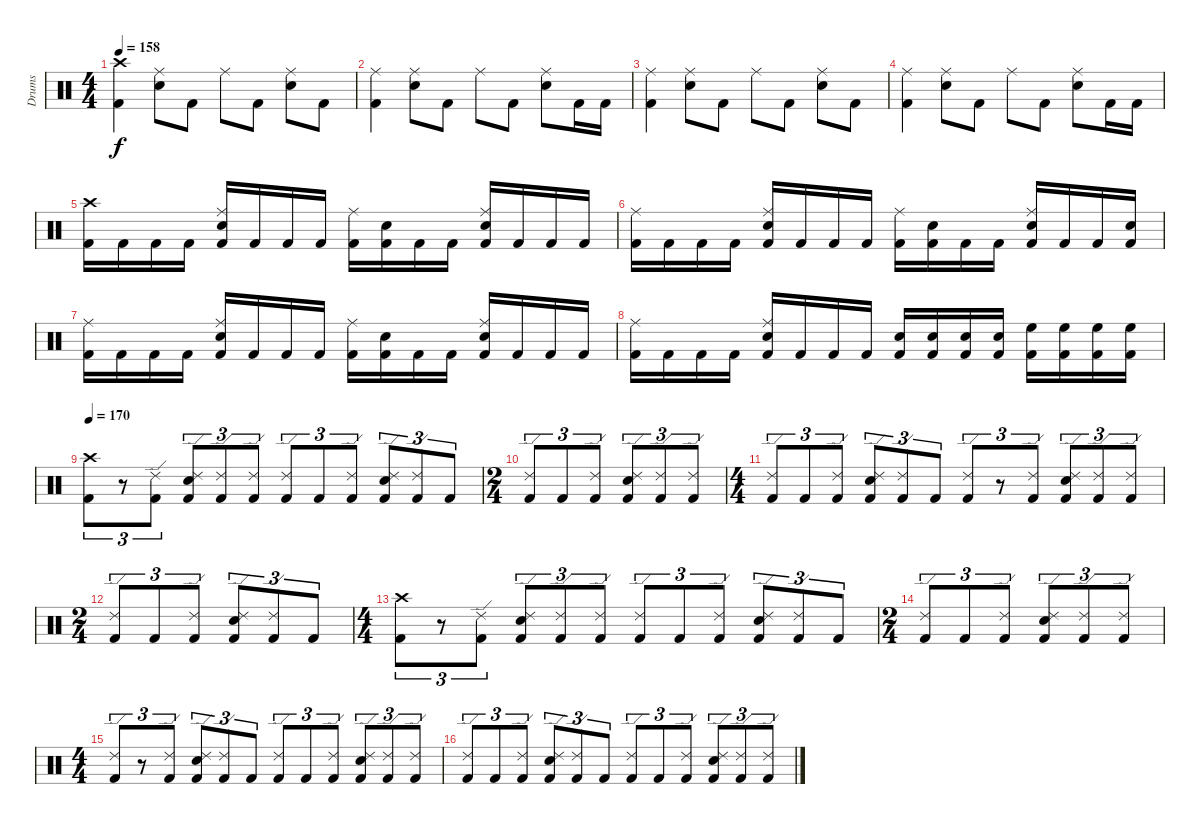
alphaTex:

\track ("Drums" "Drums") {instrument percussion}
\staff {score}
\articulation defaults
\ts (4 4)
\tempo 158
\clef neutral
\ks c
("Crash high (hit)" "Kick (hit) 2").4{dy f} ("Ride (middle)" "Snare (hit) 2").8 "Kick (hit) 2".8 "Ride (middle)".8 "Kick (hit) 2".8 ("Ride (middle)" "Snare (hit) 2").8 "Kick (hit) 2".8 |
("Ride (middle)" "Kick (hit) 2").4 ("Ride (middle)" "Snare (hit) 2").8 "Kick (hit) 2".8 "Ride (middle)".8 "Kick (hit) 2".8 ("Ride (middle)" "Snare (hit) 2").8 "Kick (hit) 2".16 "Kick (hit) 2".16 |
("Ride (middle)" "Kick (hit) 2").4 ("Ride (middle)" "Snare (hit) 2").8 "Kick (hit) 2".8 "Ride (middle)".8 "Kick (hit) 2".8 ("Ride (middle)" "Snare (hit) 2").8 "Kick (hit) 2".8 |
("Ride (middle)" "Kick (hit) 2").4 ("Ride (middle)" "Snare (hit) 2").8 "Kick (hit) 2".8 "Ride (middle)".8 "Kick (hit) 2".8 ("Ride (middle)" "Snare (hit) 2").8 "Kick (hit) 2".16 "Kick (hit) 2".16 |
("Crash high (hit)" "Kick (hit) 2").16 "Kick (hit) 2".16 "Kick (hit) 2".16 "Kick (hit) 2".16 ("Ride (middle)" "Snare (hit) 2" "Kick (hit) 2").16 "Kick (hit) 2".16 "Kick (hit) 2".16 "Kick (hit) 2".16 ("Ride (middle)" "Kick (hit) 2").16 ("Snare (hit) 2" "Kick (hit) 2").16 "Kick (hit) 2".16 "Kick (hit) 2".16 ("Ride (middle)" "Snare (hit) 2" "Kick (hit) 2").16 "Kick (hit) 2".16 "Kick (hit) 2".16 "Kick (hit) 2".16 |
("Ride (middle)" "Kick (hit) 2").16 "Kick (hit) 2".16 "Kick (hit) 2".16 "Kick (hit) 2".16 ("Ride (middle)" "Snare (hit) 2" "Kick (hit) 2").16 "Kick (hit) 2".16 "Kick (hit) 2".16 "Kick (hit) 2".16 ("Ride (middle)" "Kick (hit) 2").16 ("Snare (hit) 2" "Kick (hit) 2").16 "Kick (hit) 2".16 "Kick (hit) 2".16 ("Ride (middle)" "Snare (hit) 2" "Kick (hit) 2").16 "Kick (hit) 2".16 "Kick (hit) 2".16 ("Snare (hit) 2" "Kick (hit) 2").16 |
("Ride (middle)" "Kick (hit) 2").16 "Kick (hit) 2".16 "Kick (hit) 2".16 "Kick (hit) 2".16 ("Ride (middle)" "Snare (hit) 2" "Kick (hit) 2").16 "Kick (hit) 2".16 "Kick (hit) 2".16 "Kick (hit) 2".16 ("Ride (middle)" "Kick (hit) 2").16 ("Snare (hit) 2" "Kick (hit) 2").16 "Kick (hit) 2".16 "Kick (hit) 2".16 ("Ride (middle)" "Snare (hit) 2" "Kick (hit) 2").16 "Kick (hit) 2".16 "Kick (hit) 2".16 "Kick (hit) 2".16 |
("Ride (middle)" "Kick (hit) 2").16 "Kick (hit) 2".16 "Kick (hit) 2".16 "Kick (hit) 2".16 ("Ride (middle)" "Snare (hit) 2" "Kick (hit) 2").16 "Kick (hit) 2".16 "Kick (hit) 2".16 "Kick (hit) 2".16 ("Snare (hit) 2" "Kick (hit) 2").16 ("Snare (hit) 2" "Kick (hit) 2").16 ("Snare (hit) 2" "Kick (hit) 2").16 ("Snare (hit) 2" "Kick (hit) 2").16 ("High Floor Tom (hit)" "Kick (hit) 2").16 ("High Floor Tom (hit)" "Kick (hit) 2").16 ("High Floor Tom (hit)" "Kick (hit) 2").16 ("High Floor Tom (hit)" "Kick (hit) 2").16 |
\tempo 170
("Crash high (hit)" "Kick (hit) 2").8{tu (3 2)} r.8{tu (3 2)} ("Ride (edge) 2" "Kick (hit) 2").8{tu (3 2)} ("Ride (edge) 2" "Snare (hit) 2" "Kick (hit) 2").8{tu (3 2)} ("Ride (edge) 2" "Kick (hit) 2").8{tu (3 2)} ("Ride (edge) 2" "Kick (hit) 2").8{tu (3 2)} ("Ride (edge) 2" "Kick (hit) 2").8{tu (3 2)} "Kick (hit) 2".8{tu (3 2)} ("Ride (edge) 2" "Kick (hit) 2").8{tu (3 2)} ("Ride (edge) 2" "Snare (hit) 2" "Kick (hit) 2").8{tu (3 2)} ("Ride (edge) 2" "Kick (hit) 2").8{tu (3 2)} "Kick (hit) 2".8{tu (3 2)} |
\ts (2 4)
("Ride (edge) 2" "Kick (hit) 2").8{tu (3 2)} "Kick (hit) 2".8{tu (3 2)} ("Ride (edge) 2" "Kick (hit) 2").8{tu (3 2)} ("Ride (edge) 2" "Snare (hit) 2" "Kick (hit) 2").8{tu (3 2)} ("Ride (edge) 2" "Kick (hit) 2").8{tu (3 2)} ("Ride (edge) 2" "Kick (hit) 2").8{tu (3 2)} |
\ts (4 4)
("Ride (edge) 2" "Kick (hit) 2").8{tu (3 2)} "Kick (hit) 2".8{tu (3 2)} ("Ride (edge) 2" "Kick (hit) 2").8{tu (3 2)} ("Ride (edge) 2" "Snare (hit) 2" "Kick (hit) 2").8{tu (3 2)} ("Ride (edge) 2" "Kick (hit) 2").8{tu (3 2)} "Kick (hit) 2".8{tu (3 2)} ("Ride (edge) 2" "Kick (hit) 2").8{tu (3 2)} r.8{tu (3 2)} ("Ride (edge) 2" "Kick (hit) 2").8{tu (3 2)} ("Ride (edge) 2" "Snare (hit) 2" "Kick (hit) 2").8{tu (3 2)} ("Ride (edge) 2" "Kick (hit) 2").8{tu (3 2)} ("Ride (edge) 2" "Kick (hit) 2").8{tu (3 2)} |
\ts (2 4)
("Ride (edge) 2" "Kick (hit) 2").8{tu (3 2)} "Kick (hit) 2".8{tu (3 2)} ("Ride (edge) 2" "Kick (hit) 2").8{tu (3 2)} ("Ride (edge) 2" "Snare (hit) 2" "Kick (hit) 2").8{tu (3 2)} ("Ride (edge) 2" "Kick (hit) 2").8{tu (3 2)} "Kick (hit) 2".8{tu (3 2)} |
\ts (4 4)
("Crash high (hit)" "Kick (hit) 2").8{tu (3 2)} r.8{tu (3 2)} ("Ride (edge) 2" "Kick (hit) 2").8{tu (3 2)} ("Ride (edge) 2" "Snare (hit) 2" "Kick (hit) 2").8{tu (3 2)} ("Ride (edge) 2" "Kick (hit) 2").8{tu (3 2)} ("Ride (edge) 2" "Kick (hit) 2").8{tu (3 2)} ("Ride (edge) 2" "Kick (hit) 2").8{tu (3 2)} "Kick (hit) 2".8{tu (3 2)} ("Ride (edge) 2" "Kick (hit) 2").8{tu (3 2)} ("Ride (edge) 2" "Snare (hit) 2" "Kick (hit) 2").8{tu (3 2)} ("Ride (edge) 2" "Kick (hit) 2").8{tu (3 2)} "Kick (hit) 2".8{tu (3 2)} |
\ts (2 4)
("Ride (edge) 2" "Kick (hit) 2").8{tu (3 2)} "Kick (hit) 2".8{tu (3 2)} ("Ride (edge) 2" "Kick (hit) 2").8{tu (3 2)} ("Ride (edge) 2" "Snare (hit) 2" "Kick (hit) 2").8{tu (3 2)} ("Ride (edge) 2" "Kick (hit) 2").8{tu (3 2)} ("Ride (edge) 2" "Kick (hit) 2").8{tu (3 2)} |
\ts (4 4)
("Ride (edge) 2" "Kick (hit) 2").8{tu (3 2)} r.8{tu (3 2)} ("Ride (edge) 2" "Kick (hit) 2").8{tu (3 2)} ("Ride (edge) 2" "Snare (hit) 2" "Kick (hit) 2").8{tu (3 2)} ("Ride (edge) 2" "Kick (hit) 2").8{tu (3 2)} "Kick (hit) 2".8{tu (3 2)} ("Ride (edge) 2" "Kick (hit) 2").8{tu (3 2)} "Kick (hit) 2".8{tu (3 2)} ("Ride (edge) 2" "Kick (hit) 2").8{tu (3 2)} ("Ride (edge) 2" "Snare (hit) 2" "Kick (hit) 2").8{tu (3 2)} ("Ride (edge) 2" "Kick (hit) 2").8{tu (3 2)} ("Ride (edge) 2" "Kick (hit) 2").8{tu (3 2)} |
("Ride (edge) 2" "Kick (hit) 2").8{tu (3 2)} "Kick (hit) 2".8{tu (3 2)} ("Ride (edge) 2" "Kick (hit) 2").8{tu (3 2)} ("Ride (edge) 2" "Snare (hit) 2" "Kick (hit) 2").8{tu (3 2)} ("Ride (edge) 2" "Kick (hit) 2").8{tu (3 2)} "Kick (hit) 2".8{tu (3 2)} ("Ride (edge) 2" "Kick (hit) 2").8{tu (3 2)} "Kick (hit) 2".8{tu (3 2)} ("Ride (edge) 2" "Kick (hit) 2").8{tu (3 2)} ("Ride (edge) 2" "Snare (hit) 2" "Kick (hit) 2").8{tu (3 2)} ("Ride (edge) 2" "Kick (hit) 2").8{tu (3 2)} ("Ride (edge) 2" "Kick (hit) 2").8{tu (3 2)}
